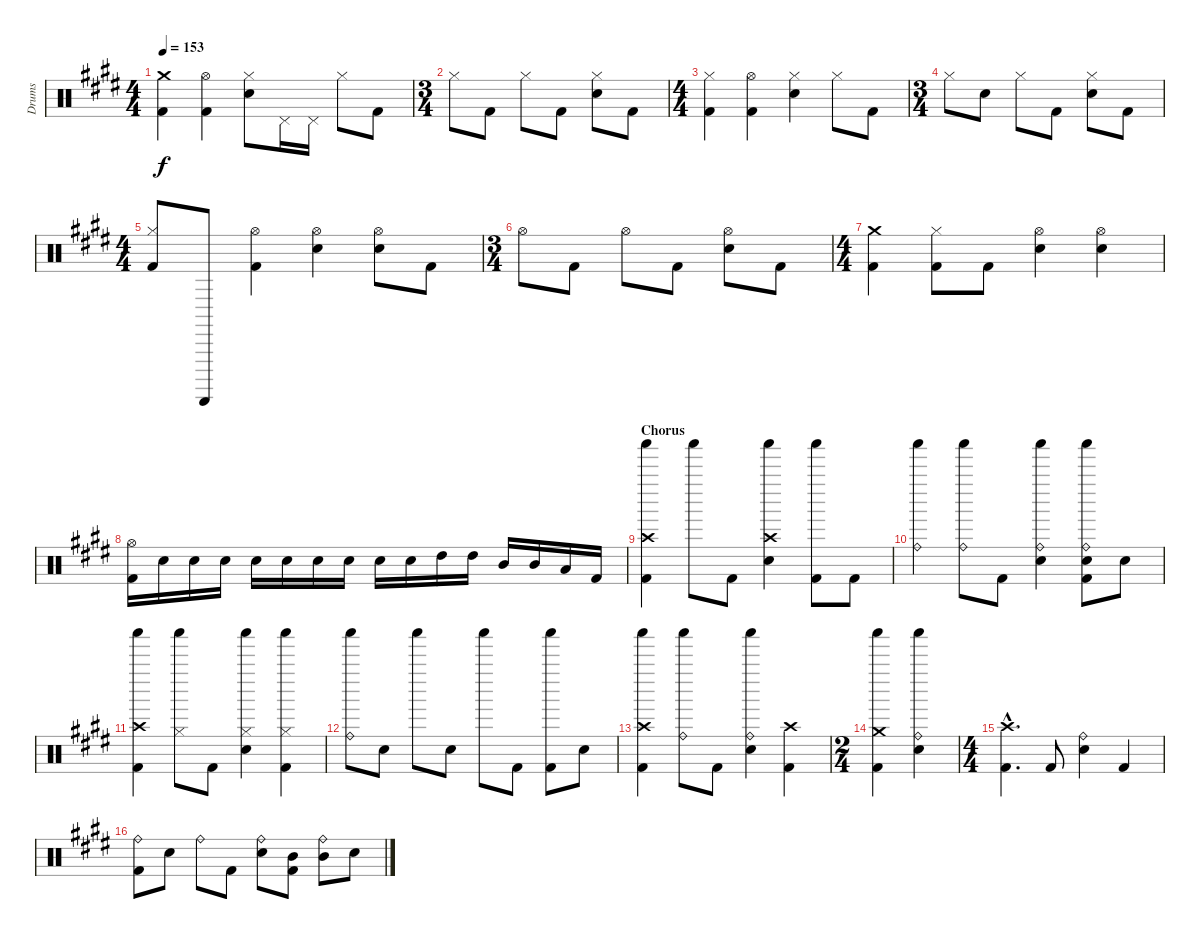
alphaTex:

\track ("Drums" "Drums") {instrument percussion}
\staff {score}
\articulation defaults
\ts (4 4)
\tempo 153
\clef neutral
\ks e
("Crash medium (hit)" "Kick (hit) 2").4{dy f} ("Kick (hit) 2" "Hi-Hat (open)").4 ("Electric Snare (hit)" "Hi-Hat (closed)").8 "Pedal Hi-Hat (hit)".16 "Pedal Hi-Hat (hit)".16 "Hi-Hat (closed)".8 "Kick (hit) 2".8 |
\ts (3 4)
"Hi-Hat (closed)".8 "Kick (hit) 2".8 "Hi-Hat (closed)".8 "Kick (hit) 2".8 ("Hi-Hat (closed)" "Electric Snare (hit)").8 "Kick (hit) 2".8 |
\ts (4 4)
("Kick (hit) 2" "Hi-Hat (closed)").4 ("Kick (hit) 2" "Hi-Hat (open)").4 ("Electric Snare (hit)" "Hi-Hat (closed)").4 "Hi-Hat (closed)".8 "Kick (hit) 2".8 |
\ts (3 4)
"Hi-Hat (closed)".8 "Electric Snare (hit)".8 "Hi-Hat (closed)".8 "Kick (hit) 2".8 ("Hi-Hat (closed)" "Electric Snare (hit)").8 "Kick (hit) 2".8 |
\ts (4 4)
("Kick (hit) 2" "Hi-Hat (closed)").8 "Guiro (scrap-return)".8 ("Kick (hit) 2" "Hi-Hat (open)").4 ("Electric Snare (hit)" "Hi-Hat (open)").4 ("Electric Snare (hit)" "Hi-Hat (open)").8 "Kick (hit) 2".8 |
\ts (3 4)
"Hi-Hat (open)".8 "Kick (hit) 2".8 "Hi-Hat (open)".8 "Kick (hit) 2".8 ("Electric Snare (hit)" "Hi-Hat (open)").8 "Kick (hit) 2".8 |
\ts (4 4)
("Kick (hit) 2" "Crash medium (hit)").4 ("Kick (hit) 2" "Hi-Hat (closed)").8 "Kick (hit) 2".8 ("Electric Snare (hit)" "Hi-Hat (open)").4 ("Electric Snare (hit)" "Hi-Hat (open)").4 |
("Hi-Hat (open)" "Kick (hit) 2").16 "Electric Snare (hit)".16 "Electric Snare (hit)".16 "Electric Snare (hit)".16 "Electric Snare (hit)".16 "Electric Snare (hit)".16 "Electric Snare (hit)".16 "Electric Snare (hit)".16 "Electric Snare (hit)".16 "Electric Snare (hit)".16 "High Tom (hit)".16 "High Tom (hit)".16 "Mid Tom (hit)".16 "Mid Tom (hit)".16 "Low Tom (hit)".16 "Kick (hit) 2".16 |
\section ("" "Chorus")
("Crash high (hit)" "Kick (hit) 2" "Shaker (hit)").4 "Shaker (hit)".8 "Kick (hit) 2".8 ("Crash high (hit)" "Electric Snare (hit)" "Shaker (hit)").4 ("Kick (hit) 2" "Shaker (hit)").8 "Kick (hit) 2".8 |
("Ride (bell)" "Shaker (hit)").4 ("Ride (bell)" "Shaker (hit)").8 "Kick (hit) 2".8 ("Electric Snare (hit)" "Ride (bell)" "Shaker (hit)").4 ("Electric Snare (hit)" "Kick (hit) 2" "Ride (bell)" "Shaker (hit)").8 "Electric Snare (hit)".8 |
("Crash high (hit)" "Kick (hit) 2" "Shaker (hit)").4 ("Hi-Hat (closed)" "Shaker (hit)").8 "Kick (hit) 2".8 ("Hi-Hat (closed)" "Electric Snare (hit)" "Shaker (hit)").4 ("Kick (hit) 2" "Hi-Hat (closed)" "Shaker (hit)").4 |
("Ride (bell)" "Shaker (hit)").8 "Electric Snare (hit)".8 "Shaker (hit)".8 "Electric Snare (hit)".8 "Shaker (hit)".8 "Kick (hit) 2".8 ("Kick (hit) 2" "Shaker (hit)").8 "Electric Snare (hit)".8 |
("Kick (hit) 2" "Crash high (hit)" "Shaker (hit)").4 ("Ride (bell)" "Shaker (hit)").8 "Kick (hit) 2".8 ("Electric Snare (hit)" "Ride (bell)" "Shaker (hit)").4 ("Kick (hit) 2" "Crash high (hit)").4 |
\ts (2 4)
("Kick (hit) 2" "Crash medium (hit)" "Shaker (hit)").4 ("Electric Snare (hit)" "Ride (bell)" "Shaker (hit)").4 |
\ts (4 4)
("Kick (hit) 2"{hac} "Crash high (hit)"{hac}).4{d} "Kick (hit) 2".8 ("Electric Snare (hit)" "Ride (bell)").4 "Kick (hit) 2".4 |
("Kick (hit) 2" "Ride (bell)").8 "Electric Snare (hit)".8 "Ride (bell)".8 "Kick (hit) 2".8 ("Electric Snare (hit)" "Ride (bell)").8 ("Mid Tom (hit)" "Kick (hit) 2").8 ("Mid Tom (hit)" "Ride (bell)").8 "Electric Snare (hit)".8
